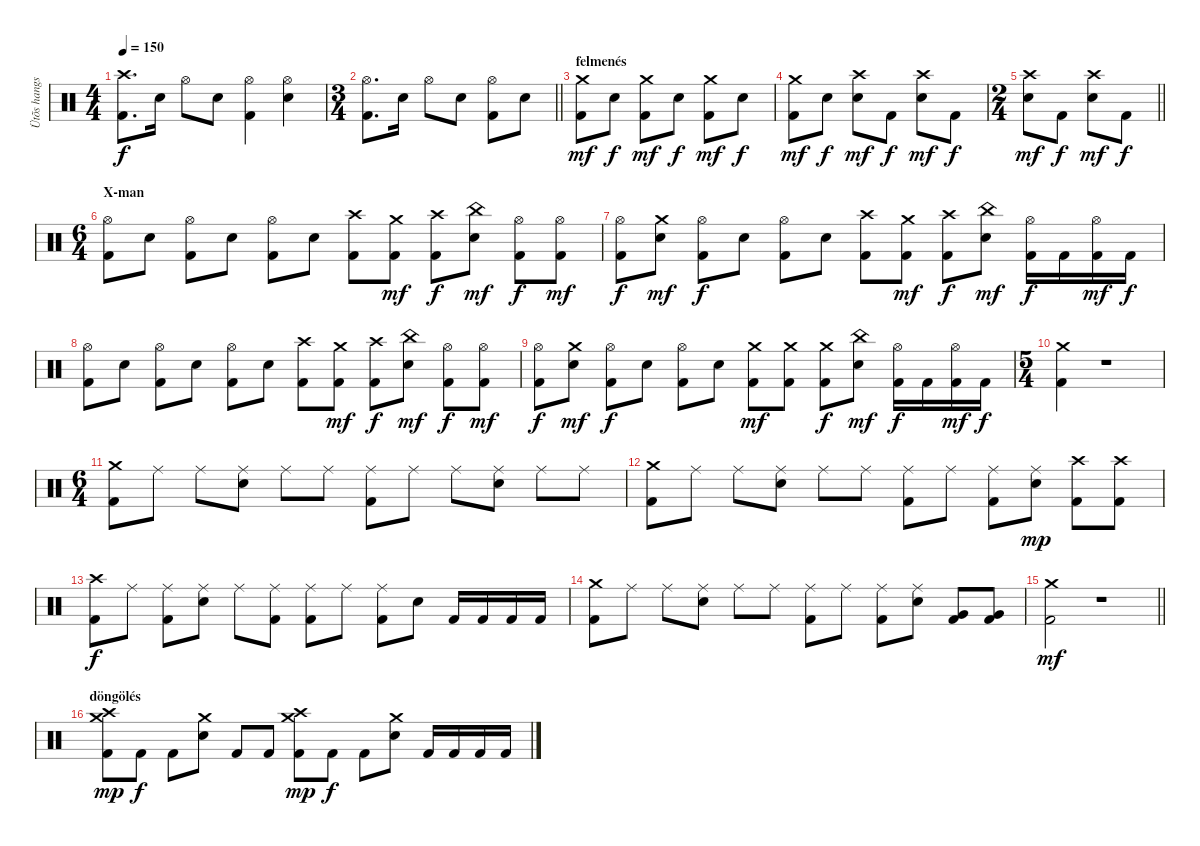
\track ("Ütõs hangszer" "Ütõs hangs") {instrument percussion}
\staff {score}
\articulation defaults
\ts (4 4)
\tempo 150
\clef neutral
\ks c
("Crash high (hit)" "Kick (hit) 2").8{d dy f} "Electric Snare (hit)".16 "Hi-Hat (open)".8 "Electric Snare (hit)".8 ("Hi-Hat (open)" "Kick (hit) 2").4 ("Hi-Hat (open)" "Electric Snare (hit)").4 |
\ts (3 4)
\barLineRight lightlight
("Hi-Hat (open)" "Kick (hit) 2").8{d} "Electric Snare (hit)".16 "Hi-Hat (open)".8 "Electric Snare (hit)".8 ("Hi-Hat (open)" "Kick (hit) 2").8 "Electric Snare (hit)".8 |
\section ("" "felmenés")
("Crash medium (hit)" "Kick (hit) 2").8{dy mf} "Electric Snare (hit)".8{dy f} ("Crash medium (hit)" "Kick (hit) 2").8{dy mf} "Electric Snare (hit)".8{dy f} ("Crash medium (hit)" "Kick (hit) 2").8{dy mf} "Electric Snare (hit)".8{dy f} |
("Crash medium (hit)" "Kick (hit) 2").8{dy mf} "Electric Snare (hit)".8{dy f} ("Crash high (hit)" "Electric Snare (hit)").8{dy mf} "Kick (hit) 2".8{dy f} ("Crash high (hit)" "Electric Snare (hit)").8{dy mf} "Kick (hit) 2".8{dy f} |
\ts (2 4)
\barLineRight lightlight
("Crash high (hit)" "Electric Snare (hit)").8{dy mf} "Kick (hit) 2".8{dy f} ("Crash high (hit)" "Electric Snare (hit)").8{dy mf} "Kick (hit) 2".8{dy f} |
\ts (6 4)
\section ("" "X-man")
("Hi-Hat (open)" "Kick (hit) 2").8 "Electric Snare (hit)".8 ("Hi-Hat (open)" "Kick (hit) 2").8 "Electric Snare (hit)".8 ("Hi-Hat (open)" "Kick (hit) 2").8 "Electric Snare (hit)".8 ("Crash high (hit)" "Kick (hit) 2").8 ("Crash medium (hit)" "Kick (hit) 2").8{dy mf} ("Crash high (hit)" "Kick (hit) 2").8{dy f} ("China (hit)" "Electric Snare (hit)").8{dy mf} ("Hi-Hat (open)" "Kick (hit) 2").8{dy f} ("Hi-Hat (open)" "Kick (hit) 2").8{dy mf} |
("Hi-Hat (open)" "Kick (hit) 2").8{dy f} ("Crash medium (hit)" "Electric Snare (hit)").8{dy mf} ("Hi-Hat (open)" "Kick (hit) 2").8{dy f} "Electric Snare (hit)".8 ("Hi-Hat (open)" "Kick (hit) 2").8 "Electric Snare (hit)".8 ("Crash high (hit)" "Kick (hit) 2").8 ("Crash medium (hit)" "Kick (hit) 2").8{dy mf} ("Crash high (hit)" "Kick (hit) 2").8{dy f} ("China (hit)" "Electric Snare (hit)").8{dy mf} ("Hi-Hat (open)" "Kick (hit) 2").16{dy f} "Kick (hit) 2".16 ("Hi-Hat (open)" "Kick (hit) 2").16{dy mf} "Kick (hit) 2".16{dy f} |
("Hi-Hat (open)" "Kick (hit) 2").8 "Electric Snare (hit)".8 ("Hi-Hat (open)" "Kick (hit) 2").8 "Electric Snare (hit)".8 ("Hi-Hat (open)" "Kick (hit) 2").8 "Electric Snare (hit)".8 ("Crash high (hit)" "Kick (hit) 2").8 ("Crash medium (hit)" "Kick (hit) 2").8{dy mf} ("Crash high (hit)" "Kick (hit) 2").8{dy f} ("China (hit)" "Electric Snare (hit)").8{dy mf} ("Hi-Hat (open)" "Kick (hit) 2").8{dy f} ("Hi-Hat (open)" "Kick (hit) 2").8{dy mf} |
("Hi-Hat (open)" "Kick (hit) 2").8{dy f} ("Crash medium (hit)" "Electric Snare (hit)").8{dy mf} ("Hi-Hat (open)" "Kick (hit) 2").8{dy f} "Electric Snare (hit)".8 ("Hi-Hat (open)" "Kick (hit) 2").8 "Electric Snare (hit)".8 ("Crash medium (hit)" "Kick (hit) 2").8{dy mf} ("Crash medium (hit)" "Kick (hit) 2").8 ("Crash medium (hit)" "Kick (hit) 2").8{dy f} ("China (hit)" "Electric Snare (hit)").8{dy mf} ("Hi-Hat (open)" "Kick (hit) 2").16{dy f} "Kick (hit) 2".16 ("Hi-Hat (open)" "Kick (hit) 2").16{dy mf} "Kick (hit) 2".16{dy f} |
\ts (5 4)
("Crash medium (hit)" "Kick (hit) 2").4 r.1 |
\ts (6 4)
("Crash medium (hit)" "Kick (hit) 2").8 "Ride (middle)".8 "Ride (middle)".8 ("Ride (middle)" "Electric Snare (hit)").8 "Ride (middle)".8 "Ride (middle)".8 ("Ride (middle)" "Kick (hit) 2").8 "Ride (middle)".8 "Ride (middle)".8 ("Ride (middle)" "Electric Snare (hit)").8 "Ride (middle)".8 "Ride (middle)".8 |
("Crash medium (hit)" "Kick (hit) 2").8 "Ride (middle)".8 "Ride (middle)".8 ("Ride (middle)" "Electric Snare (hit)").8 "Ride (middle)".8 "Ride (middle)".8 ("Ride (middle)" "Kick (hit) 2").8 "Ride (middle)".8 ("Ride (middle)" "Kick (hit) 2").8 ("Ride (middle)" "Electric Snare (hit)").8{dy mp} ("Crash high (hit)" "Kick (hit) 2").8 ("Crash high (hit)" "Kick (hit) 2").8 |
("Crash high (hit)" "Kick (hit) 2").8{dy f} "Ride (middle)".8 ("Ride (middle)" "Kick (hit) 2").8 ("Ride (middle)" "Electric Snare (hit)").8 "Ride (middle)".8 ("Ride (middle)" "Kick (hit) 2").8 ("Ride (middle)" "Kick (hit) 2").8 "Ride (middle)".8 ("Ride (middle)" "Kick (hit) 2").8 "Electric Snare (hit)".8 "Kick (hit) 2".16 "Kick (hit) 2".16 "Kick (hit) 2".16 "Kick (hit) 2".16 |
("Crash medium (hit)" "Kick (hit) 2").8 "Ride (middle)".8 "Ride (middle)".8 ("Ride (middle)" "Electric Snare (hit)").8 "Ride (middle)".8 "Ride (middle)".8 ("Ride (middle)" "Kick (hit) 2").8 "Ride (middle)".8 ("Ride (middle)" "Kick (hit) 2").8 ("Ride (middle)" "Electric Snare (hit)").8 ("Very Low Tom (hit)" "Kick (hit) 2").8 ("Very Low Tom (hit)" "Kick (hit) 2").8 |
\barLineRight lightlight
("Crash medium (hit)" "Kick (hit) 2").2{dy mf} r.1 |
\section ("" "döngölés")
("Crash medium (hit)" "Crash high (hit)" "Kick (hit) 2").8{dy mp} "Kick (hit) 2".8{dy f} "Kick (hit) 2".8 ("Crash medium (hit)" "Electric Snare (hit)").8 "Kick (hit) 2".8 "Kick (hit) 2".8 ("Crash high (hit)" "Crash medium (hit)" "Kick (hit) 2").8{dy mp} "Kick (hit) 2".8{dy f} "Kick (hit) 2".8 ("Crash medium (hit)" "Electric Snare (hit)").8 "Kick (hit) 2".16 "Kick (hit) 2".16 "Kick (hit) 2".16 "Kick (hit) 2".16
